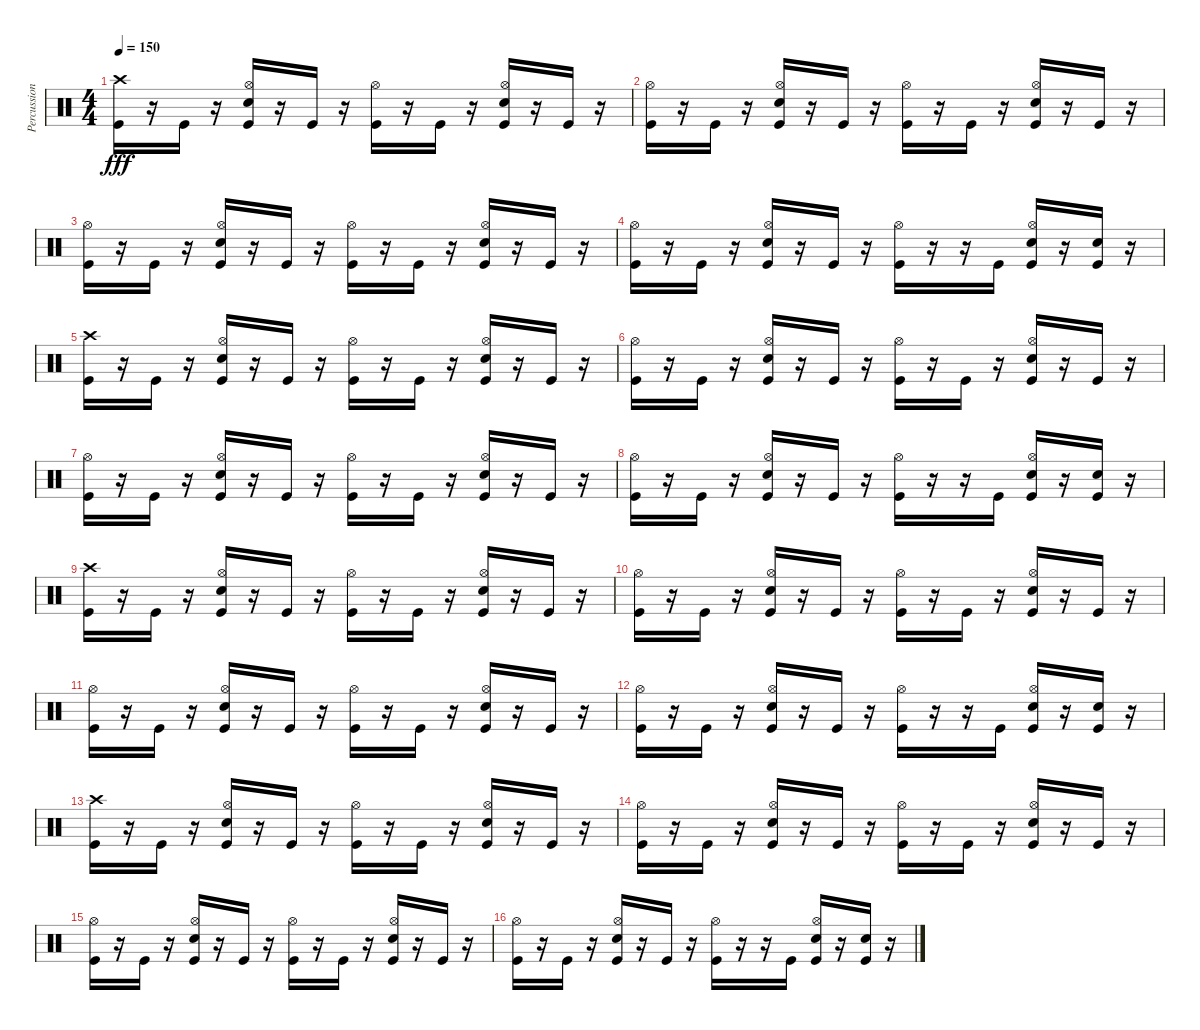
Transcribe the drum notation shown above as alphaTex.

\track ("Percussion" "Percussion") {instrument percussion}
\staff {score}
\articulation defaults
\ts (4 4)
\tempo 150
\clef neutral
\ks c
("Crash high (hit)" "Kick (hit)").16{dy fff} r.16 "Kick (hit)".16 r.16 ("Hi-Hat (open)" "Snare (hit) 2" "Kick (hit)").16 r.16 "Kick (hit)".16 r.16 ("Hi-Hat (open)" "Kick (hit)").16 r.16 "Kick (hit)".16 r.16 ("Hi-Hat (open)" "Snare (hit) 2" "Kick (hit)").16 r.16 "Kick (hit)".16 r.16 |
("Hi-Hat (open)" "Kick (hit)").16 r.16 "Kick (hit)".16 r.16 ("Hi-Hat (open)" "Snare (hit) 2" "Kick (hit)").16 r.16 "Kick (hit)".16 r.16 ("Hi-Hat (open)" "Kick (hit)").16 r.16 "Kick (hit)".16 r.16 ("Hi-Hat (open)" "Snare (hit) 2" "Kick (hit)").16 r.16 "Kick (hit)".16 r.16 |
("Hi-Hat (open)" "Kick (hit)").16 r.16 "Kick (hit)".16 r.16 ("Hi-Hat (open)" "Snare (hit) 2" "Kick (hit)").16 r.16 "Kick (hit)".16 r.16 ("Hi-Hat (open)" "Kick (hit)").16 r.16 "Kick (hit)".16 r.16 ("Hi-Hat (open)" "Snare (hit) 2" "Kick (hit)").16 r.16 "Kick (hit)".16 r.16 |
("Hi-Hat (open)" "Kick (hit)").16 r.16 "Kick (hit)".16 r.16 ("Hi-Hat (open)" "Snare (hit) 2" "Kick (hit)").16 r.16 "Kick (hit)".16 r.16 ("Hi-Hat (open)" "Kick (hit)").16 r.16 r.16 "Kick (hit)".16 ("Hi-Hat (open)" "Snare (hit) 2" "Kick (hit)").16 r.16 ("Snare (hit) 2" "Kick (hit)").16 r.16 |
("Crash high (hit)" "Kick (hit)").16 r.16 "Kick (hit)".16 r.16 ("Hi-Hat (open)" "Snare (hit) 2" "Kick (hit)").16 r.16 "Kick (hit)".16 r.16 ("Hi-Hat (open)" "Kick (hit)").16 r.16 "Kick (hit)".16 r.16 ("Hi-Hat (open)" "Snare (hit) 2" "Kick (hit)").16 r.16 "Kick (hit)".16 r.16 |
("Hi-Hat (open)" "Kick (hit)").16 r.16 "Kick (hit)".16 r.16 ("Hi-Hat (open)" "Snare (hit) 2" "Kick (hit)").16 r.16 "Kick (hit)".16 r.16 ("Hi-Hat (open)" "Kick (hit)").16 r.16 "Kick (hit)".16 r.16 ("Hi-Hat (open)" "Snare (hit) 2" "Kick (hit)").16 r.16 "Kick (hit)".16 r.16 |
("Hi-Hat (open)" "Kick (hit)").16 r.16 "Kick (hit)".16 r.16 ("Hi-Hat (open)" "Snare (hit) 2" "Kick (hit)").16 r.16 "Kick (hit)".16 r.16 ("Hi-Hat (open)" "Kick (hit)").16 r.16 "Kick (hit)".16 r.16 ("Hi-Hat (open)" "Snare (hit) 2" "Kick (hit)").16 r.16 "Kick (hit)".16 r.16 |
("Hi-Hat (open)" "Kick (hit)").16 r.16 "Kick (hit)".16 r.16 ("Hi-Hat (open)" "Snare (hit) 2" "Kick (hit)").16 r.16 "Kick (hit)".16 r.16 ("Hi-Hat (open)" "Kick (hit)").16 r.16 r.16 "Kick (hit)".16 ("Hi-Hat (open)" "Snare (hit) 2" "Kick (hit)").16 r.16 ("Snare (hit) 2" "Kick (hit)").16 r.16 |
("Crash high (hit)" "Kick (hit)").16 r.16 "Kick (hit)".16 r.16 ("Hi-Hat (open)" "Snare (hit) 2" "Kick (hit)").16 r.16 "Kick (hit)".16 r.16 ("Hi-Hat (open)" "Kick (hit)").16 r.16 "Kick (hit)".16 r.16 ("Hi-Hat (open)" "Snare (hit) 2" "Kick (hit)").16 r.16 "Kick (hit)".16 r.16 |
("Hi-Hat (open)" "Kick (hit)").16 r.16 "Kick (hit)".16 r.16 ("Hi-Hat (open)" "Snare (hit) 2" "Kick (hit)").16 r.16 "Kick (hit)".16 r.16 ("Hi-Hat (open)" "Kick (hit)").16 r.16 "Kick (hit)".16 r.16 ("Hi-Hat (open)" "Snare (hit) 2" "Kick (hit)").16 r.16 "Kick (hit)".16 r.16 |
("Hi-Hat (open)" "Kick (hit)").16 r.16 "Kick (hit)".16 r.16 ("Hi-Hat (open)" "Snare (hit) 2" "Kick (hit)").16 r.16 "Kick (hit)".16 r.16 ("Hi-Hat (open)" "Kick (hit)").16 r.16 "Kick (hit)".16 r.16 ("Hi-Hat (open)" "Snare (hit) 2" "Kick (hit)").16 r.16 "Kick (hit)".16 r.16 |
("Hi-Hat (open)" "Kick (hit)").16 r.16 "Kick (hit)".16 r.16 ("Hi-Hat (open)" "Snare (hit) 2" "Kick (hit)").16 r.16 "Kick (hit)".16 r.16 ("Hi-Hat (open)" "Kick (hit)").16 r.16 r.16 "Kick (hit)".16 ("Hi-Hat (open)" "Snare (hit) 2" "Kick (hit)").16 r.16 ("Snare (hit) 2" "Kick (hit)").16 r.16 |
("Crash high (hit)" "Kick (hit)").16 r.16 "Kick (hit)".16 r.16 ("Hi-Hat (open)" "Snare (hit) 2" "Kick (hit)").16 r.16 "Kick (hit)".16 r.16 ("Hi-Hat (open)" "Kick (hit)").16 r.16 "Kick (hit)".16 r.16 ("Hi-Hat (open)" "Snare (hit) 2" "Kick (hit)").16 r.16 "Kick (hit)".16 r.16 |
("Hi-Hat (open)" "Kick (hit)").16 r.16 "Kick (hit)".16 r.16 ("Hi-Hat (open)" "Snare (hit) 2" "Kick (hit)").16 r.16 "Kick (hit)".16 r.16 ("Hi-Hat (open)" "Kick (hit)").16 r.16 "Kick (hit)".16 r.16 ("Hi-Hat (open)" "Snare (hit) 2" "Kick (hit)").16 r.16 "Kick (hit)".16 r.16 |
("Hi-Hat (open)" "Kick (hit)").16 r.16 "Kick (hit)".16 r.16 ("Hi-Hat (open)" "Snare (hit) 2" "Kick (hit)").16 r.16 "Kick (hit)".16 r.16 ("Hi-Hat (open)" "Kick (hit)").16 r.16 "Kick (hit)".16 r.16 ("Hi-Hat (open)" "Snare (hit) 2" "Kick (hit)").16 r.16 "Kick (hit)".16 r.16 |
("Hi-Hat (open)" "Kick (hit)").16 r.16 "Kick (hit)".16 r.16 ("Hi-Hat (open)" "Snare (hit) 2" "Kick (hit)").16 r.16 "Kick (hit)".16 r.16 ("Hi-Hat (open)" "Kick (hit)").16 r.16 r.16 "Kick (hit)".16 ("Hi-Hat (open)" "Snare (hit) 2" "Kick (hit)").16 r.16 ("Snare (hit) 2" "Kick (hit)").16 r.16
